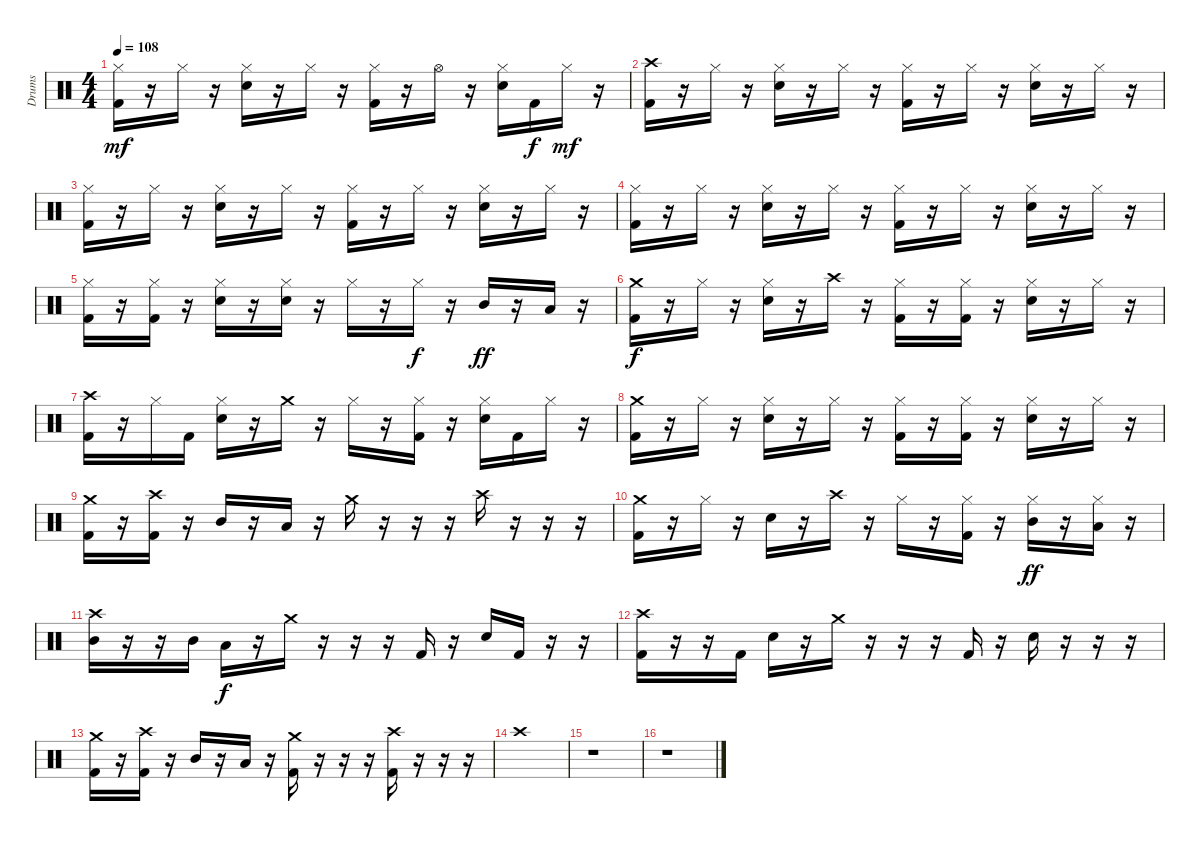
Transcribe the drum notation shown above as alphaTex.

\track ("Drums" "Drums") {instrument percussion}
\staff {score}
\articulation defaults
\ts (4 4)
\tempo 108
\clef neutral
\ks c
("Hi-Hat (closed)" "Kick (hit) 2").16{dy mf} r.16 "Hi-Hat (closed)".16 r.16 ("Hi-Hat (closed)" "Snare (hit) 2").16 r.16 "Hi-Hat (closed)".16 r.16 ("Hi-Hat (closed)" "Kick (hit) 2").16 r.16 "Hi-Hat (open)".16 r.16 ("Hi-Hat (closed)" "Snare (hit) 2").16 "Kick (hit) 2".16{dy f} "Hi-Hat (closed)".16{dy mf} r.16 |
("Crash high (hit)" "Kick (hit) 2").16 r.16 "Hi-Hat (closed)".16 r.16 ("Hi-Hat (closed)" "Snare (hit) 2").16 r.16 "Hi-Hat (closed)".16 r.16 ("Hi-Hat (closed)" "Kick (hit) 2").16 r.16 "Hi-Hat (closed)".16 r.16 ("Hi-Hat (closed)" "Snare (hit) 2").16 r.16 "Hi-Hat (closed)".16 r.16 |
("Hi-Hat (closed)" "Kick (hit) 2").16 r.16 "Hi-Hat (closed)".16 r.16 ("Hi-Hat (closed)" "Snare (hit) 2").16 r.16 "Hi-Hat (closed)".16 r.16 ("Hi-Hat (closed)" "Kick (hit) 2").16 r.16 "Hi-Hat (closed)".16 r.16 ("Hi-Hat (closed)" "Snare (hit) 2").16 r.16 "Hi-Hat (closed)".16 r.16 |
("Hi-Hat (closed)" "Kick (hit) 2").16 r.16 "Hi-Hat (closed)".16 r.16 ("Hi-Hat (closed)" "Snare (hit) 2").16 r.16 "Hi-Hat (closed)".16 r.16 ("Hi-Hat (closed)" "Kick (hit) 2").16 r.16 "Hi-Hat (closed)".16 r.16 ("Hi-Hat (closed)" "Snare (hit) 2").16 r.16 "Hi-Hat (closed)".16 r.16 |
("Hi-Hat (closed)" "Kick (hit) 2").16 r.16 ("Hi-Hat (closed)" "Kick (hit) 2").16 r.16 ("Hi-Hat (closed)" "Snare (hit) 2").16 r.16 ("Hi-Hat (closed)" "Snare (hit) 2").16 r.16 "Hi-Hat (closed)".16 r.16 "Hi-Hat (closed)".16{dy f} r.16 "Mid Tom (hit)".16{dy ff} r.16 "Low Tom (hit)".16 r.16 |
("Crash medium (hit)" "Kick (hit) 2").16{dy f} r.16 "Hi-Hat (closed)".16 r.16 ("Hi-Hat (closed)" "Snare (hit) 2").16 r.16 "Crash high (hit)".16 r.16 ("Hi-Hat (closed)" "Kick (hit) 2").16 r.16 ("Hi-Hat (closed)" "Kick (hit) 2").16 r.16 ("Hi-Hat (closed)" "Snare (hit) 2").16 r.16 "Hi-Hat (closed)".16 r.16 |
("Crash high (hit)" "Kick (hit) 2").16 r.16 "Hi-Hat (closed)".16 "Kick (hit) 2".16 ("Hi-Hat (closed)" "Snare (hit) 2").16 r.16 "Crash medium (hit)".16 r.16 "Hi-Hat (closed)".16 r.16 ("Hi-Hat (closed)" "Kick (hit) 2").16 r.16 ("Hi-Hat (closed)" "Snare (hit) 2").16 "Kick (hit) 2".16 "Hi-Hat (closed)".16 r.16 |
("Crash medium (hit)" "Kick (hit) 2").16 r.16 "Hi-Hat (closed)".16 r.16 ("Hi-Hat (closed)" "Snare (hit) 2").16 r.16 "Hi-Hat (closed)".16 r.16 ("Hi-Hat (closed)" "Kick (hit) 2").16 r.16 ("Hi-Hat (closed)" "Kick (hit) 2").16 r.16 ("Hi-Hat (closed)" "Snare (hit) 2").16 r.16 "Hi-Hat (closed)".16 r.16 |
("Crash medium (hit)" "Kick (hit) 2").16 r.16 ("Crash high (hit)" "Kick (hit) 2").16 r.16 "Mid Tom (hit)".16 r.16 "Low Tom (hit)".16 r.16 "Crash medium (hit)".16 r.16 r.16 r.16 "Crash high (hit)".16 r.16 r.16 r.16 |
("Crash medium (hit)" "Kick (hit) 2").16 r.16 "Hi-Hat (closed)".16 r.16 "Snare (hit) 2".16 r.16 "Crash high (hit)".16 r.16 "Hi-Hat (closed)".16 r.16 ("Hi-Hat (closed)" "Kick (hit) 2").16 r.16 ("Hi-Hat (closed)" "Mid Tom (hit)").16{dy ff} r.16 ("Hi-Hat (closed)" "Low Tom (hit)").16 r.16 |
("Crash high (hit)" "Mid Tom (hit)").16 r.16 r.16 "Mid Tom (hit)".16 "Low Tom (hit)".16{dy f} r.16 "Crash medium (hit)".16 r.16 r.16 r.16 "Kick (hit) 2".16 r.16 "Snare (hit) 2".16 "Kick (hit) 2".16 r.16 r.16 |
("Crash high (hit)" "Kick (hit) 2").16 r.16 r.16 "Kick (hit) 2".16 "Snare (hit) 2".16 r.16 "Crash medium (hit)".16 r.16 r.16 r.16 "Kick (hit) 2".16 r.16 "Snare (hit) 2".16 r.16 r.16 r.16 |
("Crash medium (hit)" "Kick (hit) 2").16 r.16 ("Crash high (hit)" "Kick (hit) 2").16 r.16 "Mid Tom (hit)".16 r.16 "Low Tom (hit)".16 r.16 ("Crash medium (hit)" "Kick (hit) 2").16 r.16 r.16 r.16 ("Crash high (hit)" "Kick (hit) 2").16 r.16 r.16 r.16 |
"Crash high (hit)".1 |
r.1 |
r.1
